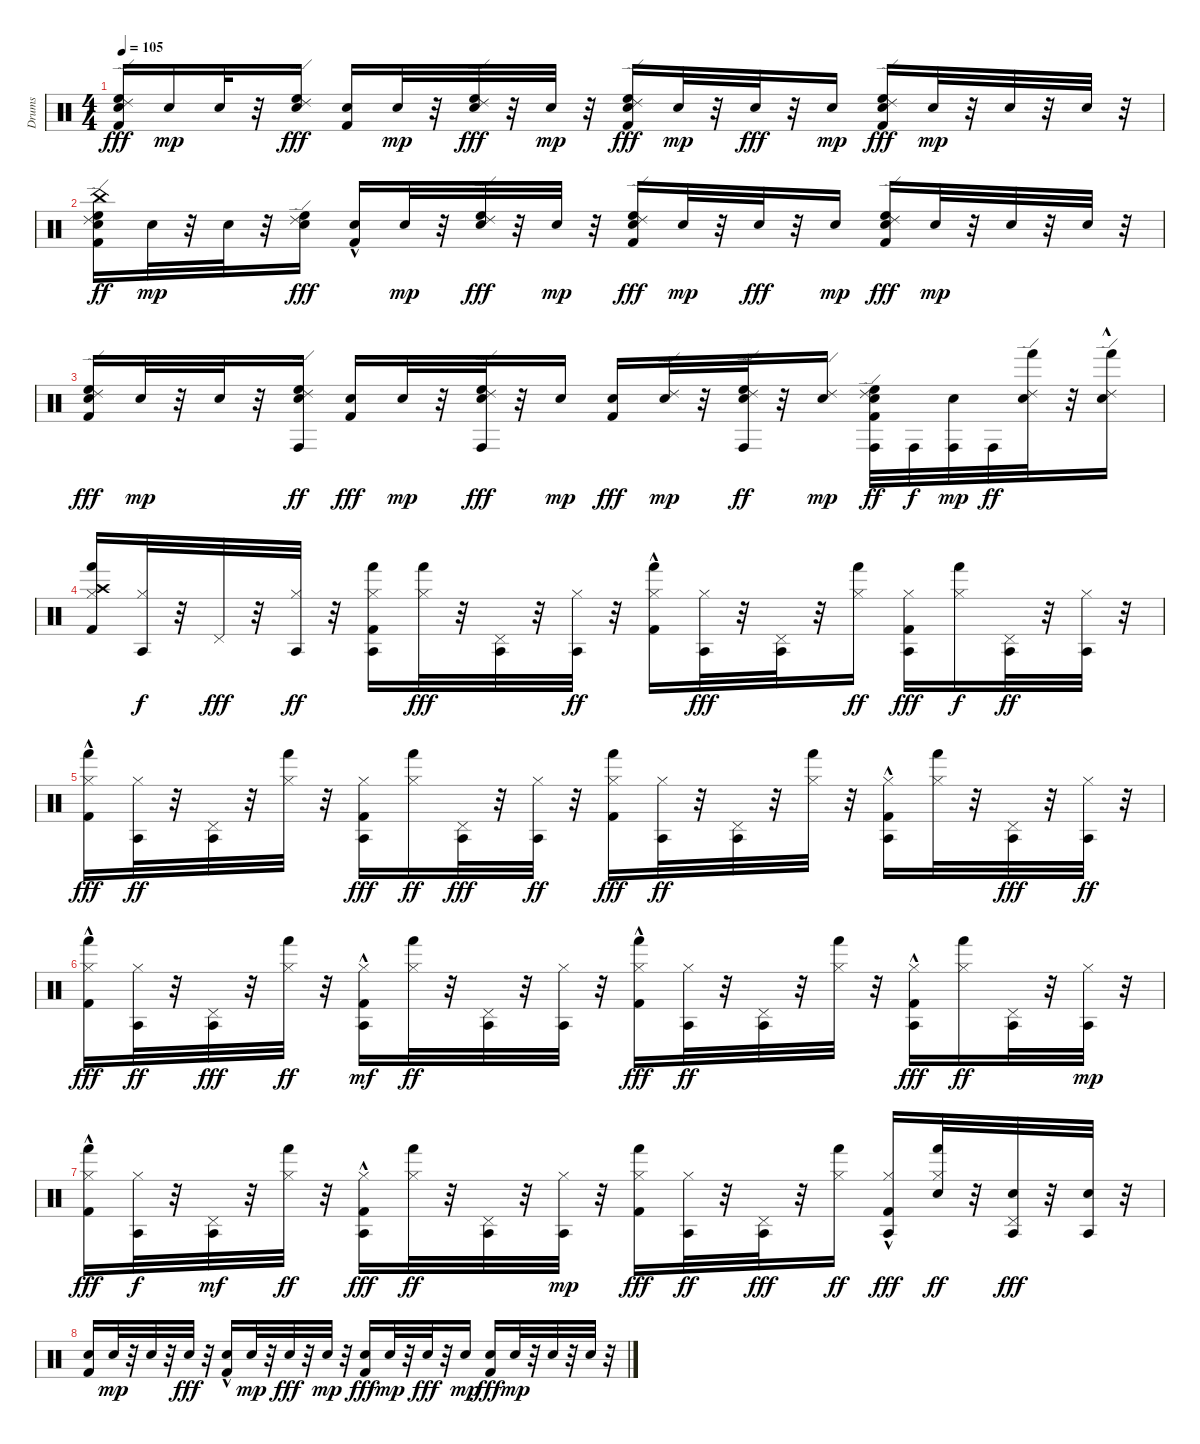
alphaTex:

\track ("Drums" "Drums") {instrument percussion}
\staff {score}
\articulation defaults
\ts (4 4)
\tempo 105
\clef neutral
\ks c
("Ride (edge) 2" "High Floor Tom (hit)" "Snare (hit) 2" "Kick (hit) 2").16{dy fff} "Snare (hit) 2".16{dy mp} "Snare (hit) 2".32 r.32 ("High Floor Tom (hit)" "Ride (edge) 2" "Snare (hit) 2").16{dy fff} ("Snare (hit) 2" "Kick (hit) 2").16 "Snare (hit) 2".32{dy mp} r.32 ("High Floor Tom (hit)" "Ride (edge) 2" "Snare (hit) 2").32{dy fff} r.32 "Snare (hit) 2".32{dy mp} r.32 ("Ride (edge) 2" "High Floor Tom (hit)" "Snare (hit) 2" "Kick (hit) 2").16{dy fff} "Snare (hit) 2".32{dy mp} r.32 "Snare (hit) 2".32{dy fff} r.32 "Snare (hit) 2".16{dy mp} ("High Floor Tom (hit)" "Ride (edge) 2" "Snare (hit) 2" "Kick (hit) 2").16{dy fff} "Snare (hit) 2".32{dy mp} r.32 "Snare (hit) 2".32 r.32 "Snare (hit) 2".32 r.32 |
("Snare (hit) 2" "Kick (hit) 2" "Ride (edge) 2" "High Floor Tom (hit)" "China (hit)").16{dy ff} "Snare (hit) 2".32{dy mp} r.32 "Snare (hit) 2".32 r.32 ("Ride (edge) 2" "High Floor Tom (hit)" "Snare (hit) 2").16{dy fff} ("Snare (hit) 2" "Kick (hit) 2"{hac}).16 "Snare (hit) 2".32{dy mp} r.32 ("High Floor Tom (hit)" "Ride (edge) 2" "Snare (hit) 2").32{dy fff} r.32 "Snare (hit) 2".32{dy mp} r.32 ("Ride (edge) 2" "High Floor Tom (hit)" "Snare (hit) 2" "Kick (hit) 2").16{dy fff} "Snare (hit) 2".32{dy mp} r.32 "Snare (hit) 2".32{dy fff} r.32 "Snare (hit) 2".16{dy mp} ("High Floor Tom (hit)" "Ride (edge) 2" "Snare (hit) 2" "Kick (hit) 2").16{dy fff} "Snare (hit) 2".32{dy mp} r.32 "Snare (hit) 2".32 r.32 "Snare (hit) 2".32 r.32 |
("Snare (hit) 2" "Kick (hit) 2" "Ride (edge) 2" "High Floor Tom (hit)").16{dy fff} "Snare (hit) 2".32{dy mp} r.32 "Snare (hit) 2".32 r.32 ("High Floor Tom (hit)" "Ride (edge) 2" "Snare (hit) 2" "Conga high (hit)").16{dy ff} ("Snare (hit) 2" "Kick (hit) 2").16{dy fff} "Snare (hit) 2".32{dy mp} r.32 ("High Floor Tom (hit)" "Ride (edge) 2" "Snare (hit) 2" "Conga high (hit)").32{dy fff} r.32 "Snare (hit) 2".16{dy mp} ("Snare (hit) 2" "Kick (hit) 2").16{dy fff} ("Ride (edge) 2" "Snare (hit) 2").32{dy mp} r.32 ("Snare (hit) 2" "Ride (edge) 2" "High Floor Tom (hit)" "Conga high (hit)").32{dy ff} r.32 ("Ride (edge) 2" "Snare (hit) 2").16{dy mp} ("High Floor Tom (hit)" "Ride (edge) 2" "Snare (hit) 2" "Kick (hit) 2" "Conga high (hit)").32{dy ff} "Conga high (hit)".32{dy f} ("Snare (hit) 2" "Conga high (hit)").32{dy mp} "Conga high (hit)".32{dy ff} ("Ride (edge) 2" "Snare (hit) 2" "Hand (hit)").32 r.32 ("Ride (edge) 2" "Snare (hit) 2"{hac} "Hand (hit)").16 |
("Kick (hit) 2" "Crash high (hit)" "Hi-Hat (closed)" "Hand (hit)").16 ("Hi-Hat (closed)" "Agogo tow (hit)").32{dy f} r.32 "Pedal Hi-Hat (hit)".32{dy fff} r.32 ("Agogo tow (hit)" "Hi-Hat (closed)").32{dy ff} r.32 ("Hand (hit)" "Kick (hit) 2" "Hi-Hat (closed)" "Agogo tow (hit)").16 ("Hi-Hat (closed)" "Hand (hit)").32{dy fff} r.32 ("Pedal Hi-Hat (hit)" "Agogo tow (hit)").32 r.32 ("Hi-Hat (closed)" "Agogo tow (hit)").32{dy ff} r.32 ("Hand (hit)" "Kick (hit) 2"{hac} "Hi-Hat (closed)").16 ("Agogo tow (hit)" "Hi-Hat (closed)").32{dy fff} r.32 ("Agogo tow (hit)" "Pedal Hi-Hat (hit)").32 r.32 ("Hand (hit)" "Hi-Hat (closed)").16{dy ff} ("Agogo tow (hit)" "Kick (hit) 2" "Hi-Hat (closed)").16{dy fff} ("Hand (hit)" "Hi-Hat (closed)").16{dy f} ("Agogo tow (hit)" "Pedal Hi-Hat (hit)").32{dy ff} r.32 ("Agogo tow (hit)" "Hi-Hat (closed)").32 r.32 |
("Hand (hit)" "Hi-Hat (closed)" "Kick (hit) 2"{hac}).16{dy fff} ("Agogo tow (hit)" "Hi-Hat (closed)").32{dy ff} r.32 ("Agogo tow (hit)" "Pedal Hi-Hat (hit)").32 r.32 ("Hi-Hat (closed)" "Hand (hit)").32 r.32 ("Agogo tow (hit)" "Hi-Hat (closed)" "Kick (hit) 2").16{dy fff} ("Hand (hit)" "Hi-Hat (closed)").16{dy ff} ("Agogo tow (hit)" "Pedal Hi-Hat (hit)").32{dy fff} r.32 ("Agogo tow (hit)" "Hi-Hat (closed)").32{dy ff} r.32 ("Hand (hit)" "Kick (hit) 2" "Hi-Hat (closed)").16{dy fff} ("Agogo tow (hit)" "Hi-Hat (closed)").32{dy ff} r.32 ("Agogo tow (hit)" "Pedal Hi-Hat (hit)").32 r.32 ("Hi-Hat (closed)" "Hand (hit)").32 r.32 ("Agogo tow (hit)" "Kick (hit) 2"{hac} "Hi-Hat (closed)").16 ("Hand (hit)" "Hi-Hat (closed)").32 r.32 ("Agogo tow (hit)" "Pedal Hi-Hat (hit)").32{dy fff} r.32 ("Agogo tow (hit)" "Hi-Hat (closed)").32{dy ff} r.32 |
("Hand (hit)" "Hi-Hat (closed)" "Kick (hit) 2"{hac}).16{dy fff} ("Agogo tow (hit)" "Hi-Hat (closed)").32{dy ff} r.32 ("Agogo tow (hit)" "Pedal Hi-Hat (hit)").32{dy fff} r.32 ("Hi-Hat (closed)" "Hand (hit)").32{dy ff} r.32 ("Hi-Hat (closed)" "Kick (hit) 2"{hac} "Agogo tow (hit)").16{dy mf} ("Hi-Hat (closed)" "Hand (hit)").32{dy ff} r.32 ("Agogo tow (hit)" "Pedal Hi-Hat (hit)").32 r.32 ("Agogo tow (hit)" "Hi-Hat (closed)").32 r.32 ("Hand (hit)" "Hi-Hat (closed)" "Kick (hit) 2"{hac}).16{dy fff} ("Agogo tow (hit)" "Hi-Hat (closed)").32{dy ff} r.32 ("Agogo tow (hit)" "Pedal Hi-Hat (hit)").32 r.32 ("Hand (hit)" "Hi-Hat (closed)").32 r.32 ("Hi-Hat (closed)" "Kick (hit) 2"{hac} "Agogo tow (hit)").16{dy fff} ("Hand (hit)" "Hi-Hat (closed)").16{dy ff} ("Agogo tow (hit)" "Pedal Hi-Hat (hit)").32 r.32 ("Agogo tow (hit)" "Hi-Hat (closed)").32{dy mp} r.32 |
("Hand (hit)" "Hi-Hat (closed)" "Kick (hit) 2"{hac}).16{dy fff} ("Agogo tow (hit)" "Hi-Hat (closed)").32{dy f} r.32 ("Pedal Hi-Hat (hit)" "Agogo tow (hit)").32{dy mf} r.32 ("Hi-Hat (closed)" "Hand (hit)").32{dy ff} r.32 ("Agogo tow (hit)" "Hi-Hat (closed)" "Kick (hit) 2"{hac}).16{dy fff} ("Hi-Hat (closed)" "Hand (hit)").32{dy ff} r.32 ("Agogo tow (hit)" "Pedal Hi-Hat (hit)").32 r.32 ("Agogo tow (hit)" "Hi-Hat (closed)").32{dy mp} r.32 ("Hand (hit)" "Hi-Hat (closed)" "Kick (hit) 2").16{dy fff} ("Agogo tow (hit)" "Hi-Hat (closed)").32{dy ff} r.32 ("Pedal Hi-Hat (hit)" "Agogo tow (hit)").32{dy fff} r.32 ("Hand (hit)" "Hi-Hat (closed)").16{dy ff} ("Agogo tow (hit)" "Hi-Hat (closed)" "Kick (hit) 2"{hac}).16{dy fff} ("Hand (hit)" "Snare (hit) 2" "Hi-Hat (closed)").32{dy ff} r.32 ("Agogo tow (hit)" "Snare (hit) 2" "Pedal Hi-Hat (hit)").32{dy fff} r.32 ("Agogo tow (hit)" "Snare (hit) 2").32 r.32 |
("Snare (hit) 2" "Kick (hit) 2").16 "Snare (hit) 2".32{dy mp} r.32 "Snare (hit) 2".32 r.32 "Snare (hit) 2".32{dy fff} r.32 ("Snare (hit) 2" "Kick (hit) 2"{hac}).16 "Snare (hit) 2".32{dy mp} r.32 "Snare (hit) 2".32{dy fff} r.32 "Snare (hit) 2".32{dy mp} r.32 ("Snare (hit) 2" "Kick (hit) 2").16{dy fff} "Snare (hit) 2".32{dy mp} r.32 "Snare (hit) 2".32{dy fff} r.32 "Snare (hit) 2".16{dy mp} ("Snare (hit) 2" "Kick (hit) 2").16{dy fff} "Snare (hit) 2".32{dy mp} r.32 "Snare (hit) 2".32 r.32 "Snare (hit) 2".32 r.32
